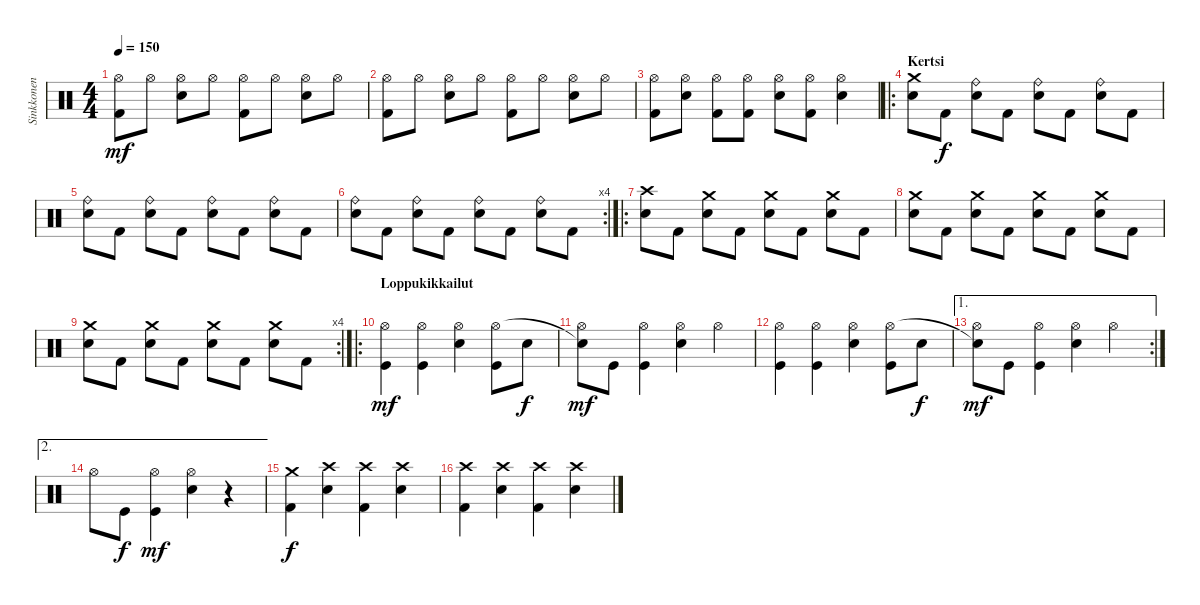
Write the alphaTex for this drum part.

\track ("Sinkkonen" "Sinkkonen") {instrument percussion}
\staff {score}
\articulation defaults
\ts (4 4)
\tempo 150
\clef neutral
\ks c
("Kick (hit) 2" "Hi-Hat (open)").8{dy mf} "Hi-Hat (open)".8 ("Hi-Hat (open)" "Snare (hit) 2").8 "Hi-Hat (open)".8 ("Kick (hit) 2" "Hi-Hat (open)").8 "Hi-Hat (open)".8 ("Hi-Hat (open)" "Snare (hit) 2").8 "Hi-Hat (open)".8 |
("Kick (hit) 2" "Hi-Hat (open)").8 "Hi-Hat (open)".8 ("Hi-Hat (open)" "Snare (hit) 2").8 "Hi-Hat (open)".8 ("Kick (hit) 2" "Hi-Hat (open)").8 "Hi-Hat (open)".8 ("Hi-Hat (open)" "Snare (hit) 2").8 "Hi-Hat (open)".8 |
("Kick (hit) 2" "Hi-Hat (open)").8 ("Hi-Hat (open)" "Snare (hit) 2").8 ("Kick (hit) 2" "Hi-Hat (open)").8 ("Kick (hit) 2" "Hi-Hat (open)").8 ("Hi-Hat (open)" "Snare (hit) 2").8 ("Kick (hit) 2" "Hi-Hat (open)").8 ("Hi-Hat (open)" "Snare (hit) 2").4 |
\ro
\section ("" "Kertsi")
("Crash medium (hit)" "Snare (hit) 2").8 "Kick (hit) 2".8{dy f} ("Ride (bell)" "Snare (hit) 2").8 "Kick (hit) 2".8 ("Ride (bell)" "Snare (hit) 2").8 "Kick (hit) 2".8 ("Ride (bell)" "Snare (hit) 2").8 "Kick (hit) 2".8 |
("Ride (bell)" "Snare (hit) 2").8 "Kick (hit) 2".8 ("Ride (bell)" "Snare (hit) 2").8 "Kick (hit) 2".8 ("Ride (bell)" "Snare (hit) 2").8 "Kick (hit) 2".8 ("Ride (bell)" "Snare (hit) 2").8 "Kick (hit) 2".8 |
\rc 4
("Ride (bell)" "Snare (hit) 2").8 "Kick (hit) 2".8 ("Ride (bell)" "Snare (hit) 2").8 "Kick (hit) 2".8 ("Ride (bell)" "Snare (hit) 2").8 "Kick (hit) 2".8 ("Ride (bell)" "Snare (hit) 2").8 "Kick (hit) 2".8 |
\ro
("Crash high (hit)" "Snare (hit) 2").8 "Kick (hit) 2".8 ("Crash medium (hit)" "Snare (hit) 2").8 "Kick (hit) 2".8 ("Crash medium (hit)" "Snare (hit) 2").8 "Kick (hit) 2".8 ("Crash medium (hit)" "Snare (hit) 2").8 "Kick (hit) 2".8 |
("Crash medium (hit)" "Snare (hit) 2").8 "Kick (hit) 2".8 ("Crash medium (hit)" "Snare (hit) 2").8 "Kick (hit) 2".8 ("Crash medium (hit)" "Snare (hit) 2").8 "Kick (hit) 2".8 ("Crash medium (hit)" "Snare (hit) 2").8 "Kick (hit) 2".8 |
\rc 4
("Crash medium (hit)" "Snare (hit) 2").8 "Kick (hit) 2".8 ("Crash medium (hit)" "Snare (hit) 2").8 "Kick (hit) 2".8 ("Crash medium (hit)" "Snare (hit) 2").8 "Kick (hit) 2".8 ("Crash medium (hit)" "Snare (hit) 2").8 "Kick (hit) 2".8 |
\ro
\section ("" "Loppukikkailut")
("Kick (hit)" "Hi-Hat (open)").4{dy mf} ("Kick (hit)" "Hi-Hat (open)").4 ("Hi-Hat (open)" "Electric Snare (hit)").4 ("Kick (hit)" "Hi-Hat (open)").8 "Electric Snare (hit)".8{dy f} |
("Hi-Hat (open)" "Snare (hit)"{t}).8{dy mf} "Kick (hit)".8 ("Kick (hit)" "Hi-Hat (open)").4 ("Hi-Hat (open)" "Electric Snare (hit)").4 "Hi-Hat (open)".4 |
("Kick (hit)" "Hi-Hat (open)").4 ("Kick (hit)" "Hi-Hat (open)").4 ("Hi-Hat (open)" "Electric Snare (hit)").4 ("Kick (hit)" "Hi-Hat (open)").8 "Electric Snare (hit)".8{dy f} |
\ae 1
\rc 2
("Hi-Hat (open)" "Snare (hit)"{t}).8{dy mf} "Kick (hit)".8 ("Kick (hit)" "Hi-Hat (open)").4 ("Hi-Hat (open)" "Electric Snare (hit)").4 "Hi-Hat (open)".4 |
\ae 2 "Hi-Hat (open)".8 "Kick (hit)".8{dy f}
("Kick (hit)" "Hi-Hat (open)").4{dy mf} ("Hi-Hat (open)" "Electric Snare (hit)").4 r.4 |
("Kick (hit) 2" "Crash medium (hit)").4{dy f} ("Crash high (hit)" "Snare (hit) 2").4 ("Kick (hit) 2" "Crash high (hit)").4 ("Crash high (hit)" "Snare (hit) 2").4 |
("Kick (hit) 2" "Crash high (hit)").4 ("Crash high (hit)" "Snare (hit) 2").4 ("Kick (hit) 2" "Crash high (hit)").4 ("Crash high (hit)" "Snare (hit) 2").4
